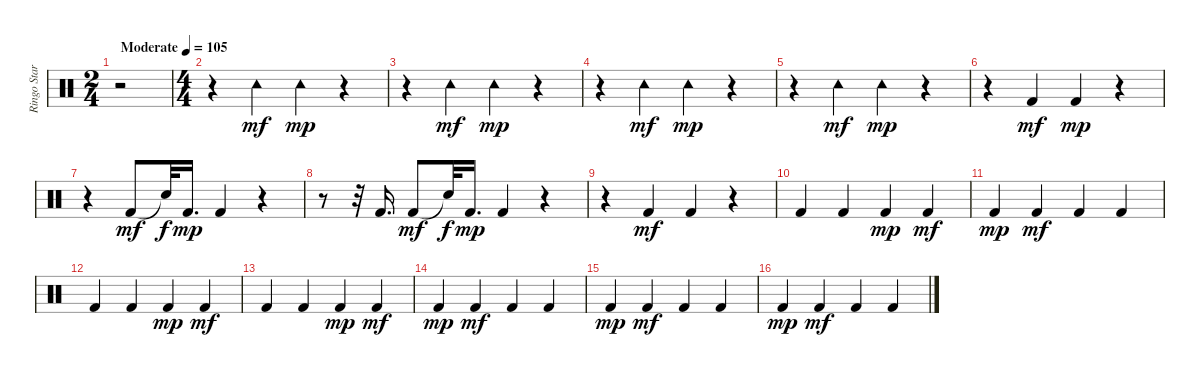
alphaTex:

\track ("Ringo Starr" "Ringo Star") {instrument percussion}
\staff {score}
\articulation defaults
\ts (2 4)
\tempo (105 "Moderate")
\tempo 104
\tempo (105 "Moderate")
\clef neutral
\ks c
r.2{dy mf} |
\ts (4 4)
r.4 "Tambourine (hit)".4 "Tambourine (hit)".4{dy mp} r.4 |
r.4 "Tambourine (hit)".4{dy mf} "Tambourine (hit)".4{dy mp} r.4 |
r.4 "Tambourine (hit)".4{dy mf} "Tambourine (hit)".4{dy mp} r.4 |
r.4 "Tambourine (hit)".4{dy mf} "Tambourine (hit)".4{dy mp} r.4 |
r.4 "Kick (hit) 2".4{dy mf} "Kick (hit) 2".4{dy mp} r.4 |
r.4 "Kick (hit) 2".8{dy mf} "Snare (hit)"{t}.32{dy f} "Kick (hit) 2".16{d dy mp} "Kick (hit) 2".4 r.4 |
r.8 r.32 "Kick (hit) 2".16{d} "Kick (hit) 2".8{dy mf} "Snare (hit)"{t}.32{dy f} "Kick (hit) 2".16{d dy mp} "Kick (hit) 2".4 r.4 |
r.4 "Kick (hit) 2".4{dy mf} "Kick (hit) 2".4 r.4 |
"Kick (hit) 2".4 "Kick (hit) 2".4 "Kick (hit) 2".4{dy mp} "Kick (hit) 2".4{dy mf} |
"Kick (hit) 2".4{dy mp} "Kick (hit) 2".4{dy mf} "Kick (hit) 2".4 "Kick (hit) 2".4 |
"Kick (hit) 2".4 "Kick (hit) 2".4 "Kick (hit) 2".4{dy mp} "Kick (hit) 2".4{dy mf} |
"Kick (hit) 2".4 "Kick (hit) 2".4 "Kick (hit) 2".4{dy mp} "Kick (hit) 2".4{dy mf} |
"Kick (hit) 2".4{dy mp} "Kick (hit) 2".4{dy mf} "Kick (hit) 2".4 "Kick (hit) 2".4 |
"Kick (hit) 2".4{dy mp} "Kick (hit) 2".4{dy mf} "Kick (hit) 2".4 "Kick (hit) 2".4 |
"Kick (hit) 2".4{dy mp} "Kick (hit) 2".4{dy mf} "Kick (hit) 2".4 "Kick (hit) 2".4
